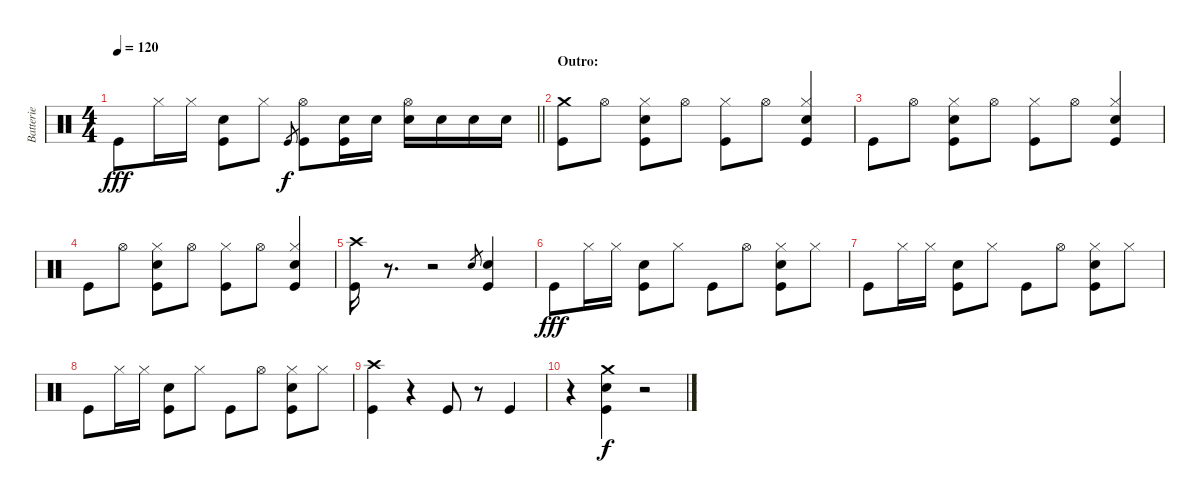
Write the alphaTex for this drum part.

\track ("Batterie" "Batterie") {instrument percussion}
\staff {score}
\articulation defaults
\ts (4 4)
\tempo 120
\clef neutral
\barLineRight lightlight
\ks c "Kick (hit)".8{dy fff} "Hi-Hat (closed)".16 "Hi-Hat (closed)".16
("Snare (hit) 2" "Kick (hit)").8 "Hi-Hat (closed)".8 "Kick (hit)".8{gr dy f} ("Hi-Hat (open)" "Kick (hit)").8 ("Snare (hit) 2" "Kick (hit)").16 "Snare (hit) 2".16 ("Hi-Hat (open)" "Snare (hit) 2").16 "Snare (hit) 2".16 "Snare (hit) 2".16 "Snare (hit) 2".16 |
\section ("" "Outro: ")
("Crash medium (hit)" "Kick (hit)").8 "Hi-Hat (open)".8 ("Hi-Hat (closed)" "Snare (hit) 2" "Kick (hit)").8 "Hi-Hat (open)".8 ("Hi-Hat (closed)" "Kick (hit)").8 "Hi-Hat (open)".8 ("Hi-Hat (closed)" "Snare (hit) 2" "Kick (hit)").4 |
"Kick (hit)".8 "Hi-Hat (open)".8 ("Hi-Hat (closed)" "Snare (hit) 2" "Kick (hit)").8 "Hi-Hat (open)".8 ("Hi-Hat (closed)" "Kick (hit)").8 "Hi-Hat (open)".8 ("Hi-Hat (closed)" "Snare (hit) 2" "Kick (hit)").4 |
"Kick (hit)".8 "Hi-Hat (open)".8 ("Hi-Hat (closed)" "Snare (hit) 2" "Kick (hit)").8 "Hi-Hat (open)".8 ("Hi-Hat (closed)" "Kick (hit)").8 "Hi-Hat (open)".8 ("Hi-Hat (closed)" "Snare (hit) 2" "Kick (hit)").4 |
("Crash high (hit)" "Kick (hit)").16 r.8{d} r.2 "Snare (hit) 2".8{gr} ("Snare (hit) 2" "Kick (hit)").4 |
"Kick (hit)".8{dy fff} "Hi-Hat (closed)".16 "Hi-Hat (closed)".16 ("Snare (hit) 2" "Kick (hit)").8 "Hi-Hat (closed)".8 "Kick (hit)".8 "Hi-Hat (open)".8 ("Hi-Hat (closed)" "Snare (hit) 2" "Kick (hit)").8 "Hi-Hat (closed)".8 |
"Kick (hit)".8 "Hi-Hat (closed)".16 "Hi-Hat (closed)".16 ("Snare (hit) 2" "Kick (hit)").8 "Hi-Hat (closed)".8 "Kick (hit)".8 "Hi-Hat (open)".8 ("Hi-Hat (closed)" "Snare (hit) 2" "Kick (hit)").8 "Hi-Hat (closed)".8 |
"Kick (hit)".8 "Hi-Hat (closed)".16 "Hi-Hat (closed)".16 ("Snare (hit) 2" "Kick (hit)").8 "Hi-Hat (closed)".8 "Kick (hit)".8 "Hi-Hat (open)".8 ("Hi-Hat (closed)" "Snare (hit) 2" "Kick (hit)").8 "Hi-Hat (closed)".8 |
("Crash high (hit)" "Kick (hit)").4 r.4 "Kick (hit)".8 r.8 "Kick (hit)".4 |
r.4 ("Crash medium (hit)" "Snare (hit) 2" "Kick (hit)").4{dy f} r.2
